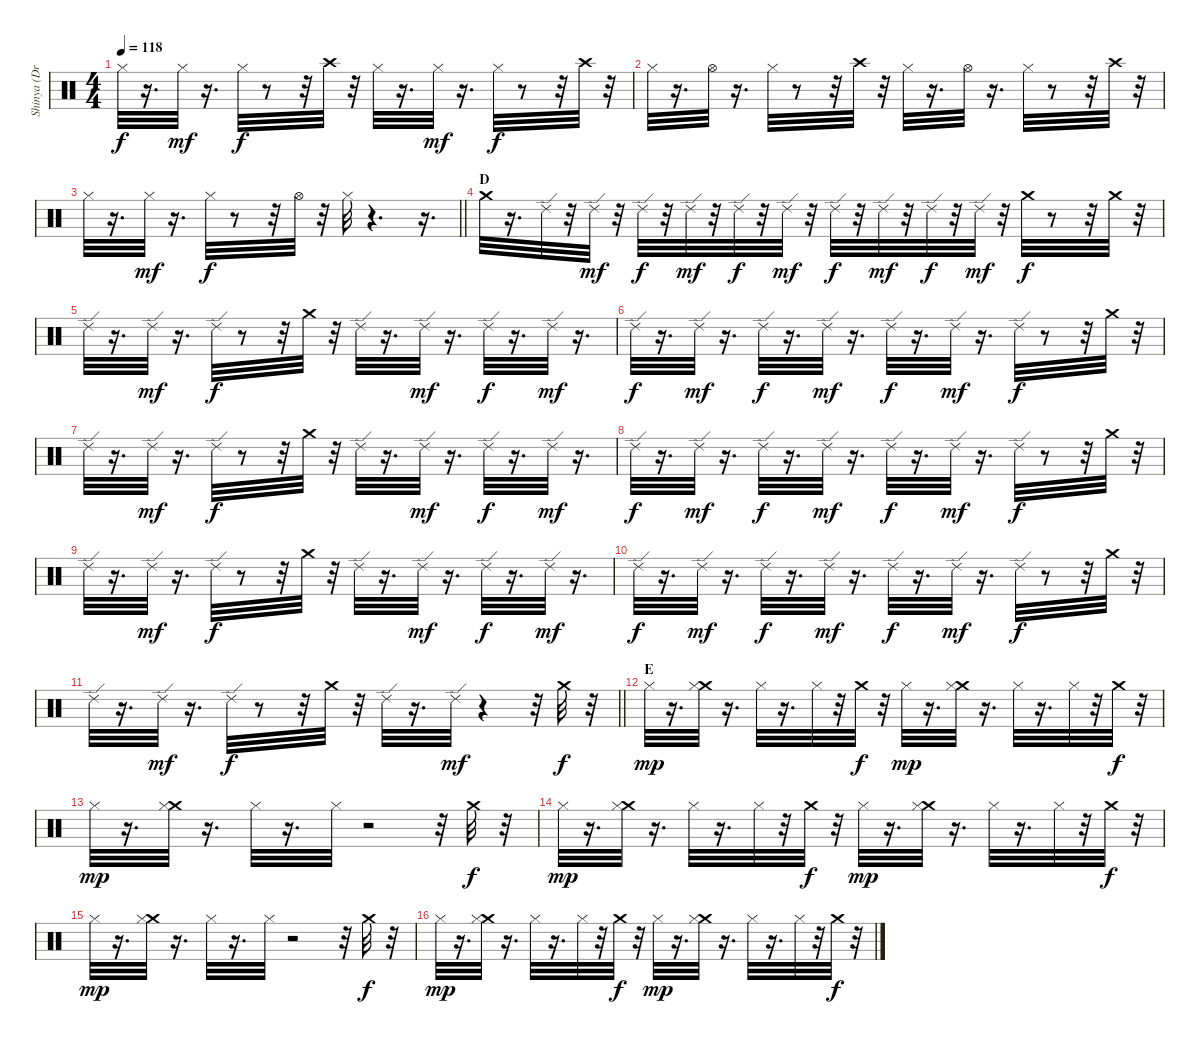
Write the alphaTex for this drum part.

\track ("Shinya (Drums)" "Shinya (Dr") {instrument percussion}
\staff {score}
\articulation defaults
\ts (4 4)
\tempo 118
\clef neutral
\ks c "Hi-Hat (closed)".32{dy f}
r.16{d} "Hi-Hat (closed)".32{dy mf} r.16{d} "Hi-Hat (closed)".32{dy f} r.8 r.32 "Crash high (hit)".32 r.32 "Hi-Hat (closed)".32 r.16{d} "Hi-Hat (closed)".32{dy mf} r.16{d} "Hi-Hat (closed)".32{dy f} r.8 r.32 "Crash high (hit)".32 r.32 |
"Hi-Hat (closed)".32 r.16{d} "Hi-Hat (open)".32 r.16{d} "Hi-Hat (closed)".32 r.8 r.32 "Crash high (hit)".32 r.32 "Hi-Hat (closed)".32 r.16{d} "Hi-Hat (open)".32 r.16{d} "Hi-Hat (closed)".32 r.8 r.32 "Crash high (hit)".32 r.32 |
\barLineRight lightlight "Hi-Hat (closed)".32
r.16{d} "Hi-Hat (closed)".32{dy mf} r.16{d} "Hi-Hat (closed)".32{dy f} r.8 r.32 "Hi-Hat (open)".32 r.32 "Hi-Hat (closed)".32 r.4{d} r.16{d} |
\section ("" "D")
"Crash medium (hit)".32 r.16{d} "Ride (edge) 2".32 r.32 "Ride (edge) 2".32{dy mf} r.32 "Ride (edge) 2".32{dy f} r.32 "Ride (edge) 2".32{dy mf} r.32 "Ride (edge) 2".32{dy f} r.32 "Ride (edge) 2".32{dy mf} r.32 "Ride (edge) 2".32{dy f} r.32 "Ride (edge) 2".32{dy mf} r.32 "Ride (edge) 2".32{dy f} r.32 "Ride (edge) 2".32{dy mf} r.32 "Crash medium (hit)".32{dy f} r.8 r.32 "Crash medium (hit)".32 r.32 |
"Ride (edge) 2".32 r.16{d} "Ride (edge) 2".32{dy mf} r.16{d} "Ride (edge) 2".32{dy f} r.8 r.32 "Crash medium (hit)".32 r.32 "Ride (edge) 2".32 r.16{d} "Ride (edge) 2".32{dy mf} r.16{d} "Ride (edge) 2".32{dy f} r.16{d} "Ride (edge) 2".32{dy mf} r.16{d} |
"Ride (edge) 2".32{dy f} r.16{d} "Ride (edge) 2".32{dy mf} r.16{d} "Ride (edge) 2".32{dy f} r.16{d} "Ride (edge) 2".32{dy mf} r.16{d} "Ride (edge) 2".32{dy f} r.16{d} "Ride (edge) 2".32{dy mf} r.16{d} "Ride (edge) 2".32{dy f} r.8 r.32 "Crash medium (hit)".32 r.32 |
"Ride (edge) 2".32 r.16{d} "Ride (edge) 2".32{dy mf} r.16{d} "Ride (edge) 2".32{dy f} r.8 r.32 "Crash medium (hit)".32 r.32 "Ride (edge) 2".32 r.16{d} "Ride (edge) 2".32{dy mf} r.16{d} "Ride (edge) 2".32{dy f} r.16{d} "Ride (edge) 2".32{dy mf} r.16{d} |
"Ride (edge) 2".32{dy f} r.16{d} "Ride (edge) 2".32{dy mf} r.16{d} "Ride (edge) 2".32{dy f} r.16{d} "Ride (edge) 2".32{dy mf} r.16{d} "Ride (edge) 2".32{dy f} r.16{d} "Ride (edge) 2".32{dy mf} r.16{d} "Ride (edge) 2".32{dy f} r.8 r.32 "Crash medium (hit)".32 r.32 |
"Ride (edge) 2".32 r.16{d} "Ride (edge) 2".32{dy mf} r.16{d} "Ride (edge) 2".32{dy f} r.8 r.32 "Crash medium (hit)".32 r.32 "Ride (edge) 2".32 r.16{d} "Ride (edge) 2".32{dy mf} r.16{d} "Ride (edge) 2".32{dy f} r.16{d} "Ride (edge) 2".32{dy mf} r.16{d} |
"Ride (edge) 2".32{dy f} r.16{d} "Ride (edge) 2".32{dy mf} r.16{d} "Ride (edge) 2".32{dy f} r.16{d} "Ride (edge) 2".32{dy mf} r.16{d} "Ride (edge) 2".32{dy f} r.16{d} "Ride (edge) 2".32{dy mf} r.16{d} "Ride (edge) 2".32{dy f} r.8 r.32 "Crash medium (hit)".32 r.32 |
\barLineRight lightlight "Ride (edge) 2".32
r.16{d} "Ride (edge) 2".32{dy mf} r.16{d} "Ride (edge) 2".32{dy f} r.8 r.32 "Crash medium (hit)".32 r.32 "Ride (edge) 2".32 r.16{d} "Ride (edge) 2".32{dy mf} r.4 r.32 "Crash medium (hit)".32{dy f} r.32 |
\section ("" "E")
"Hi-Hat (closed)".32{dy mp} r.16{d} ("Crash medium (hit)" "Hi-Hat (closed)").32 r.16{d} "Hi-Hat (closed)".32 r.16{d} "Hi-Hat (closed)".32 r.32 "Crash medium (hit)".32{dy f} r.32 "Hi-Hat (closed)".32{dy mp} r.16{d} ("Crash medium (hit)" "Hi-Hat (closed)").32 r.16{d} "Hi-Hat (closed)".32 r.16{d} "Hi-Hat (closed)".32 r.32 "Crash medium (hit)".32{dy f} r.32 |
"Hi-Hat (closed)".32{dy mp} r.16{d} ("Crash medium (hit)" "Hi-Hat (closed)").32 r.16{d} "Hi-Hat (closed)".32 r.16{d} "Hi-Hat (closed)".32 r.2 r.32 "Crash medium (hit)".32{dy f} r.32 |
"Hi-Hat (closed)".32{dy mp} r.16{d} ("Crash medium (hit)" "Hi-Hat (closed)").32 r.16{d} "Hi-Hat (closed)".32 r.16{d} "Hi-Hat (closed)".32 r.32 "Crash medium (hit)".32{dy f} r.32 "Hi-Hat (closed)".32{dy mp} r.16{d} ("Crash medium (hit)" "Hi-Hat (closed)").32 r.16{d} "Hi-Hat (closed)".32 r.16{d} "Hi-Hat (closed)".32 r.32 "Crash medium (hit)".32{dy f} r.32 |
"Hi-Hat (closed)".32{dy mp} r.16{d} ("Crash medium (hit)" "Hi-Hat (closed)").32 r.16{d} "Hi-Hat (closed)".32 r.16{d} "Hi-Hat (closed)".32 r.2 r.32 "Crash medium (hit)".32{dy f} r.32 |
"Hi-Hat (closed)".32{dy mp} r.16{d} ("Crash medium (hit)" "Hi-Hat (closed)").32 r.16{d} "Hi-Hat (closed)".32 r.16{d} "Hi-Hat (closed)".32 r.32 "Crash medium (hit)".32{dy f} r.32 "Hi-Hat (closed)".32{dy mp} r.16{d} ("Crash medium (hit)" "Hi-Hat (closed)").32 r.16{d} "Hi-Hat (closed)".32 r.16{d} "Hi-Hat (closed)".32 r.32 "Crash medium (hit)".32{dy f} r.32
